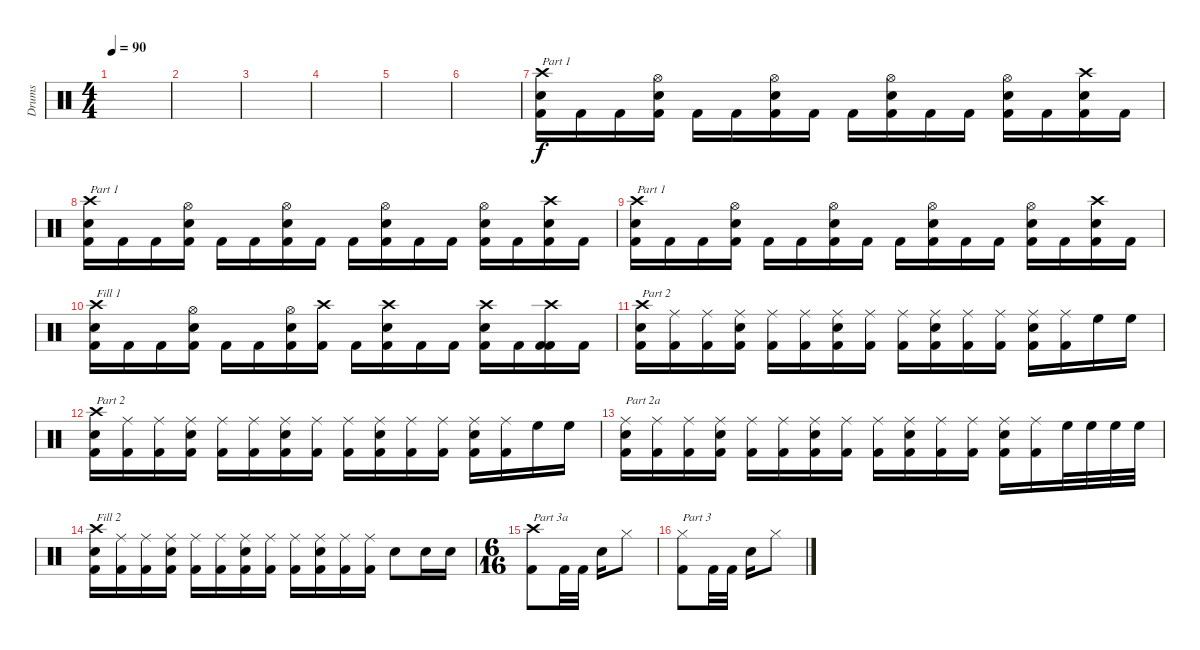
\track ("Drums" "Drums") {instrument percussion}
\staff {score}
\articulation defaults
\ts (4 4)
\tempo 90
\clef neutral
\ks c
|
|
|
|
|
|
("Crash high (hit)" "Snare (hit) 2" "Kick (hit) 2").16{txt "Part 1"} "Kick (hit) 2".16 "Kick (hit) 2".16 ("Hi-Hat (open)" "Snare (hit) 2" "Kick (hit) 2").16 "Kick (hit) 2".16 "Kick (hit) 2".16 ("Hi-Hat (open)" "Snare (hit) 2" "Kick (hit) 2").16 "Kick (hit) 2".16 "Kick (hit) 2".16 ("Hi-Hat (open)" "Snare (hit) 2" "Kick (hit) 2").16 "Kick (hit) 2".16 "Kick (hit) 2".16 ("Hi-Hat (open)" "Snare (hit) 2" "Kick (hit) 2").16 "Kick (hit) 2".16 ("Crash high (hit)" "Snare (hit) 2" "Kick (hit) 2").16 "Kick (hit) 2".16 |
("Crash high (hit)" "Snare (hit) 2" "Kick (hit) 2").16{txt "Part 1"} "Kick (hit) 2".16 "Kick (hit) 2".16 ("Hi-Hat (open)" "Snare (hit) 2" "Kick (hit) 2").16 "Kick (hit) 2".16 "Kick (hit) 2".16 ("Hi-Hat (open)" "Snare (hit) 2" "Kick (hit) 2").16 "Kick (hit) 2".16 "Kick (hit) 2".16 ("Hi-Hat (open)" "Snare (hit) 2" "Kick (hit) 2").16 "Kick (hit) 2".16 "Kick (hit) 2".16 ("Hi-Hat (open)" "Snare (hit) 2" "Kick (hit) 2").16 "Kick (hit) 2".16 ("Crash high (hit)" "Snare (hit) 2" "Kick (hit) 2").16 "Kick (hit) 2".16 |
("Crash high (hit)" "Snare (hit) 2" "Kick (hit) 2").16{txt "Part 1"} "Kick (hit) 2".16 "Kick (hit) 2".16 ("Hi-Hat (open)" "Snare (hit) 2" "Kick (hit) 2").16 "Kick (hit) 2".16 "Kick (hit) 2".16 ("Hi-Hat (open)" "Snare (hit) 2" "Kick (hit) 2").16 "Kick (hit) 2".16 "Kick (hit) 2".16 ("Hi-Hat (open)" "Snare (hit) 2" "Kick (hit) 2").16 "Kick (hit) 2".16 "Kick (hit) 2".16 ("Hi-Hat (open)" "Snare (hit) 2" "Kick (hit) 2").16 "Kick (hit) 2".16 ("Crash high (hit)" "Snare (hit) 2" "Kick (hit) 2").16 "Kick (hit) 2".16 |
("Crash high (hit)" "Snare (hit) 2" "Kick (hit) 2").16{txt "Fill 1"} "Kick (hit) 2".16 "Kick (hit) 2".16 ("Hi-Hat (open)" "Snare (hit) 2" "Kick (hit) 2").16 "Kick (hit) 2".16 "Kick (hit) 2".16 ("Hi-Hat (open)" "Snare (hit) 2" "Kick (hit) 2").16 ("Crash high (hit)" "Kick (hit) 2").16 "Kick (hit) 2".16 ("Crash high (hit)" "Snare (hit) 2" "Kick (hit) 2").16 "Kick (hit) 2".16 "Kick (hit) 2".16 ("Crash high (hit)" "Snare (hit) 2" "Kick (hit) 2").16 "Kick (hit) 2".16 ("Crash high (hit)" "Kick (hit) 2" "Kick (hit) 2").16 "Kick (hit) 2".16 |
("Crash high (hit)" "Snare (hit) 2" "Kick (hit) 2").16{txt "Part 2"} ("Ride (middle)" "Kick (hit) 2").16 ("Ride (middle)" "Kick (hit) 2").16 ("Ride (middle)" "Snare (hit) 2" "Kick (hit) 2").16 ("Ride (middle)" "Kick (hit) 2").16 ("Ride (middle)" "Kick (hit) 2").16 ("Ride (middle)" "Snare (hit) 2" "Kick (hit) 2").16 ("Ride (middle)" "Kick (hit) 2").16 ("Ride (middle)" "Kick (hit) 2").16 ("Ride (middle)" "Snare (hit) 2" "Kick (hit) 2").16 ("Ride (middle)" "Kick (hit) 2").16 ("Ride (middle)" "Kick (hit) 2").16 ("Ride (middle)" "Snare (hit) 2" "Kick (hit) 2").16 ("Ride (middle)" "Kick (hit) 2").16 "High Floor Tom (hit)".16 "High Floor Tom (hit)".16 |
("Crash high (hit)" "Snare (hit) 2" "Kick (hit) 2").16{txt "Part 2"} ("Ride (middle)" "Kick (hit) 2").16 ("Ride (middle)" "Kick (hit) 2").16 ("Ride (middle)" "Snare (hit) 2" "Kick (hit) 2").16 ("Ride (middle)" "Kick (hit) 2").16 ("Ride (middle)" "Kick (hit) 2").16 ("Ride (middle)" "Snare (hit) 2" "Kick (hit) 2").16 ("Ride (middle)" "Kick (hit) 2").16 ("Ride (middle)" "Kick (hit) 2").16 ("Ride (middle)" "Snare (hit) 2" "Kick (hit) 2").16 ("Ride (middle)" "Kick (hit) 2").16 ("Ride (middle)" "Kick (hit) 2").16 ("Ride (middle)" "Snare (hit) 2" "Kick (hit) 2").16 ("Ride (middle)" "Kick (hit) 2").16 "High Floor Tom (hit)".16 "High Floor Tom (hit)".16 |
("Ride (middle)" "Snare (hit) 2" "Kick (hit) 2").16{txt "Part 2a"} ("Ride (middle)" "Kick (hit) 2").16 ("Ride (middle)" "Kick (hit) 2").16 ("Ride (middle)" "Snare (hit) 2" "Kick (hit) 2").16 ("Ride (middle)" "Kick (hit) 2").16 ("Ride (middle)" "Kick (hit) 2").16 ("Ride (middle)" "Snare (hit) 2" "Kick (hit) 2").16 ("Ride (middle)" "Kick (hit) 2").16 ("Ride (middle)" "Kick (hit) 2").16 ("Ride (middle)" "Snare (hit) 2" "Kick (hit) 2").16 ("Ride (middle)" "Kick (hit) 2").16 ("Ride (middle)" "Kick (hit) 2").16 ("Ride (middle)" "Snare (hit) 2" "Kick (hit) 2").16 ("Ride (middle)" "Kick (hit) 2").16 "High Floor Tom (hit)".32 "High Floor Tom (hit)".32 "High Floor Tom (hit)".32 "High Floor Tom (hit)".32 |
("Crash high (hit)" "Snare (hit) 2" "Kick (hit) 2").16{txt "Fill 2"} ("Ride (middle)" "Kick (hit) 2").16 ("Ride (middle)" "Kick (hit) 2").16 ("Ride (middle)" "Snare (hit) 2" "Kick (hit) 2").16 ("Ride (middle)" "Kick (hit) 2").16 ("Ride (middle)" "Kick (hit) 2").16 ("Ride (middle)" "Snare (hit) 2" "Kick (hit) 2").16 ("Ride (middle)" "Kick (hit) 2").16 ("Ride (middle)" "Kick (hit) 2").16 ("Ride (middle)" "Snare (hit) 2" "Kick (hit) 2").16 ("Ride (middle)" "Kick (hit) 2").16 ("Ride (middle)" "Kick (hit) 2").16 "Snare (hit) 2".8 "Snare (hit) 2".16 "Snare (hit) 2".16 |
\ts (6 16)
("Crash high (hit)" "Kick (hit) 2").8{txt "Part 3a"} "Kick (hit) 2".32 "Kick (hit) 2".32 "Snare (hit) 2".16 "Hi-Hat (closed)".8 |
("Hi-Hat (closed)" "Kick (hit) 2").8{txt "Part 3"} "Kick (hit) 2".32 "Kick (hit) 2".32 "Snare (hit) 2".16 "Hi-Hat (closed)".8
